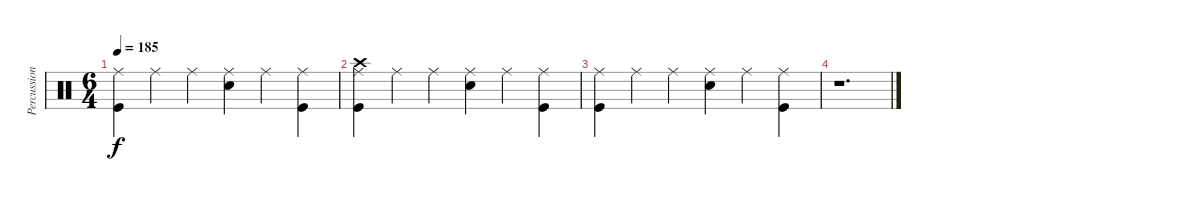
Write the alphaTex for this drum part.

\track ("Percussion" "Percussion") {instrument percussion}
\staff {score}
\articulation defaults
\ts (6 4)
\tempo 185
\clef neutral
\ks c
("Ride (middle)" "Kick (hit)").4{dy f} "Ride (middle)".4 "Ride (middle)".4 ("Ride (middle)" "Electric Snare (hit)").4 "Ride (middle)".4 ("Ride (middle)" "Kick (hit)").4 |
("Crash high (hit)" "Ride (middle)" "Kick (hit)").4{volume 0} "Ride (middle)".4 "Ride (middle)".4 ("Ride (middle)" "Electric Snare (hit)").4 "Ride (middle)".4 ("Ride (middle)" "Kick (hit)").4 |
("Ride (middle)" "Kick (hit)").4 "Ride (middle)".4 "Ride (middle)".4 ("Ride (middle)" "Electric Snare (hit)").4 "Ride (middle)".4 ("Ride (middle)" "Kick (hit)").4 |
r.1{d volume 16}
